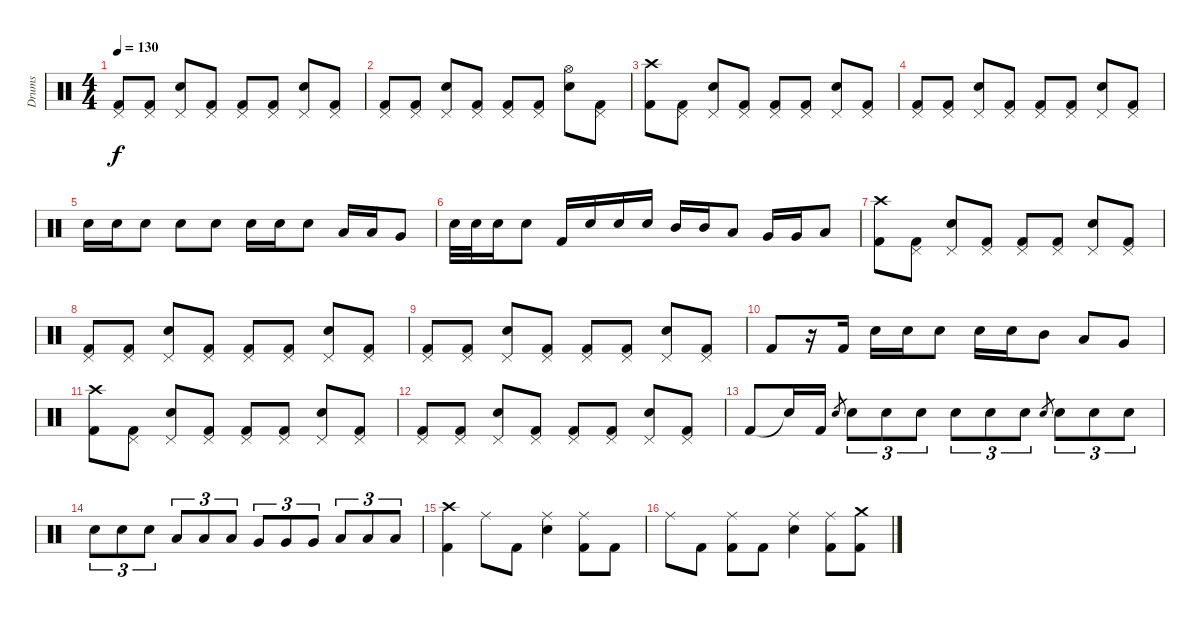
\track ("Drums" "Drums") {instrument percussion}
\staff {score}
\articulation defaults
\ts (4 4)
\tempo 130
\clef neutral
\ks c
("Pedal Hi-Hat (hit)" "Kick (hit) 2").8{dy f} ("Pedal Hi-Hat (hit)" "Kick (hit) 2").8 ("Pedal Hi-Hat (hit)" "Electric Snare (hit)").8 ("Pedal Hi-Hat (hit)" "Kick (hit) 2").8 ("Pedal Hi-Hat (hit)" "Kick (hit) 2").8 ("Pedal Hi-Hat (hit)" "Kick (hit) 2").8 ("Pedal Hi-Hat (hit)" "Electric Snare (hit)").8 ("Pedal Hi-Hat (hit)" "Kick (hit) 2").8 |
("Pedal Hi-Hat (hit)" "Kick (hit) 2").8 ("Pedal Hi-Hat (hit)" "Kick (hit) 2").8 ("Pedal Hi-Hat (hit)" "Electric Snare (hit)").8 ("Pedal Hi-Hat (hit)" "Kick (hit) 2").8 ("Pedal Hi-Hat (hit)" "Kick (hit) 2").8 ("Pedal Hi-Hat (hit)" "Kick (hit) 2").8 ("Hi-Hat (open)" "Electric Snare (hit)").8 ("Pedal Hi-Hat (hit)" "Kick (hit) 2").8 |
("Crash high (hit)" "Kick (hit) 2").8 ("Pedal Hi-Hat (hit)" "Kick (hit) 2").8 ("Pedal Hi-Hat (hit)" "Electric Snare (hit)").8 ("Pedal Hi-Hat (hit)" "Kick (hit) 2").8 ("Pedal Hi-Hat (hit)" "Kick (hit) 2").8 ("Pedal Hi-Hat (hit)" "Kick (hit) 2").8 ("Pedal Hi-Hat (hit)" "Electric Snare (hit)").8 ("Pedal Hi-Hat (hit)" "Kick (hit) 2").8 |
("Pedal Hi-Hat (hit)" "Kick (hit) 2").8 ("Pedal Hi-Hat (hit)" "Kick (hit) 2").8 ("Pedal Hi-Hat (hit)" "Electric Snare (hit)").8 ("Pedal Hi-Hat (hit)" "Kick (hit) 2").8 ("Pedal Hi-Hat (hit)" "Kick (hit) 2").8 ("Pedal Hi-Hat (hit)" "Kick (hit) 2").8 ("Pedal Hi-Hat (hit)" "Electric Snare (hit)").8 ("Pedal Hi-Hat (hit)" "Kick (hit) 2").8 |
"Electric Snare (hit)".16 "Electric Snare (hit)".16 "Electric Snare (hit)".8 "Electric Snare (hit)".8 "Electric Snare (hit)".8 "Electric Snare (hit)".16 "Electric Snare (hit)".16 "Electric Snare (hit)".8 "Low Tom (hit)".16 "Low Tom (hit)".16 "Very Low Tom (hit)".8 |
"Electric Snare (hit)".32 "Electric Snare (hit)".32 "Electric Snare (hit)".16 "Electric Snare (hit)".8 "Kick (hit) 2".16 "Electric Snare (hit)".16 "Electric Snare (hit)".16 "Electric Snare (hit)".16 "Mid Tom (hit)".16 "Mid Tom (hit)".16 "Low Tom (hit)".8 "Very Low Tom (hit)".16 "Very Low Tom (hit)".16 "Low Floor Tom (hit)".8 |
("Crash high (hit)" "Kick (hit) 2").8 ("Pedal Hi-Hat (hit)" "Kick (hit) 2").8 ("Pedal Hi-Hat (hit)" "Electric Snare (hit)").8 ("Pedal Hi-Hat (hit)" "Kick (hit) 2").8 ("Pedal Hi-Hat (hit)" "Kick (hit) 2").8 ("Pedal Hi-Hat (hit)" "Kick (hit) 2").8 ("Pedal Hi-Hat (hit)" "Electric Snare (hit)").8 ("Pedal Hi-Hat (hit)" "Kick (hit) 2").8 |
("Pedal Hi-Hat (hit)" "Kick (hit) 2").8 ("Pedal Hi-Hat (hit)" "Kick (hit) 2").8 ("Pedal Hi-Hat (hit)" "Electric Snare (hit)").8 ("Pedal Hi-Hat (hit)" "Kick (hit) 2").8 ("Pedal Hi-Hat (hit)" "Kick (hit) 2").8 ("Pedal Hi-Hat (hit)" "Kick (hit) 2").8 ("Pedal Hi-Hat (hit)" "Electric Snare (hit)").8 ("Pedal Hi-Hat (hit)" "Kick (hit) 2").8 |
("Pedal Hi-Hat (hit)" "Kick (hit) 2").8 ("Pedal Hi-Hat (hit)" "Kick (hit) 2").8 ("Pedal Hi-Hat (hit)" "Electric Snare (hit)").8 ("Pedal Hi-Hat (hit)" "Kick (hit) 2").8 ("Pedal Hi-Hat (hit)" "Kick (hit) 2").8 ("Pedal Hi-Hat (hit)" "Kick (hit) 2").8 ("Pedal Hi-Hat (hit)" "Electric Snare (hit)").8 ("Pedal Hi-Hat (hit)" "Kick (hit) 2").8 |
"Kick (hit) 2".8 r.16 "Kick (hit) 2".16 "Electric Snare (hit)".16 "Electric Snare (hit)".16 "Electric Snare (hit)".8 "Electric Snare (hit)".16 "Electric Snare (hit)".16 "Mid Tom (hit)".8 "Low Tom (hit)".8 "Very Low Tom (hit)".8 |
("Crash high (hit)" "Kick (hit) 2").8 ("Pedal Hi-Hat (hit)" "Kick (hit) 2").8 ("Pedal Hi-Hat (hit)" "Electric Snare (hit)").8 ("Pedal Hi-Hat (hit)" "Kick (hit) 2").8 ("Pedal Hi-Hat (hit)" "Kick (hit) 2").8 ("Pedal Hi-Hat (hit)" "Kick (hit) 2").8 ("Pedal Hi-Hat (hit)" "Electric Snare (hit)").8 ("Pedal Hi-Hat (hit)" "Kick (hit) 2").8 |
("Pedal Hi-Hat (hit)" "Kick (hit) 2").8 ("Pedal Hi-Hat (hit)" "Kick (hit) 2").8 ("Pedal Hi-Hat (hit)" "Electric Snare (hit)").8 ("Pedal Hi-Hat (hit)" "Kick (hit) 2").8 ("Pedal Hi-Hat (hit)" "Kick (hit) 2").8 ("Pedal Hi-Hat (hit)" "Kick (hit) 2").8 ("Pedal Hi-Hat (hit)" "Electric Snare (hit)").8 ("Pedal Hi-Hat (hit)" "Kick (hit) 2").8 |
"Kick (hit) 2".8 "Snare (hit)"{t}.16 "Kick (hit) 2".16 "Electric Snare (hit)".8{gr} "Electric Snare (hit)".8{tu (3 2)} "Electric Snare (hit)".8{tu (3 2)} "Electric Snare (hit)".8{tu (3 2)} "Electric Snare (hit)".8{tu (3 2)} "Electric Snare (hit)".8{tu (3 2)} "Electric Snare (hit)".8{tu (3 2)} "Electric Snare (hit)".8{gr} "Electric Snare (hit)".8{tu (3 2)} "Electric Snare (hit)".8{tu (3 2)} "Electric Snare (hit)".8{tu (3 2)} |
"Electric Snare (hit)".8{tu (3 2)} "Electric Snare (hit)".8{tu (3 2)} "Electric Snare (hit)".8{tu (3 2)} "Low Tom (hit)".8{tu (3 2)} "Low Tom (hit)".8{tu (3 2)} "Low Tom (hit)".8{tu (3 2)} "Very Low Tom (hit)".8{tu (3 2)} "Very Low Tom (hit)".8{tu (3 2)} "Very Low Tom (hit)".8{tu (3 2)} "Low Floor Tom (hit)".8{tu (3 2)} "Low Floor Tom (hit)".8{tu (3 2)} "Low Floor Tom (hit)".8{tu (3 2)} |
("Crash high (hit)" "Kick (hit) 2").4 "Ride (middle)".8 "Kick (hit) 2".8 ("Ride (middle)" "Electric Snare (hit)").4 ("Ride (middle)" "Kick (hit) 2").8 "Kick (hit) 2".8 |
"Ride (middle)".8 "Kick (hit) 2".8 ("Ride (middle)" "Kick (hit) 2").8 "Kick (hit) 2".8 ("Ride (middle)" "Electric Snare (hit)").4 ("Ride (middle)" "Kick (hit) 2").8 ("Crash medium (hit)" "Kick (hit) 2").8
